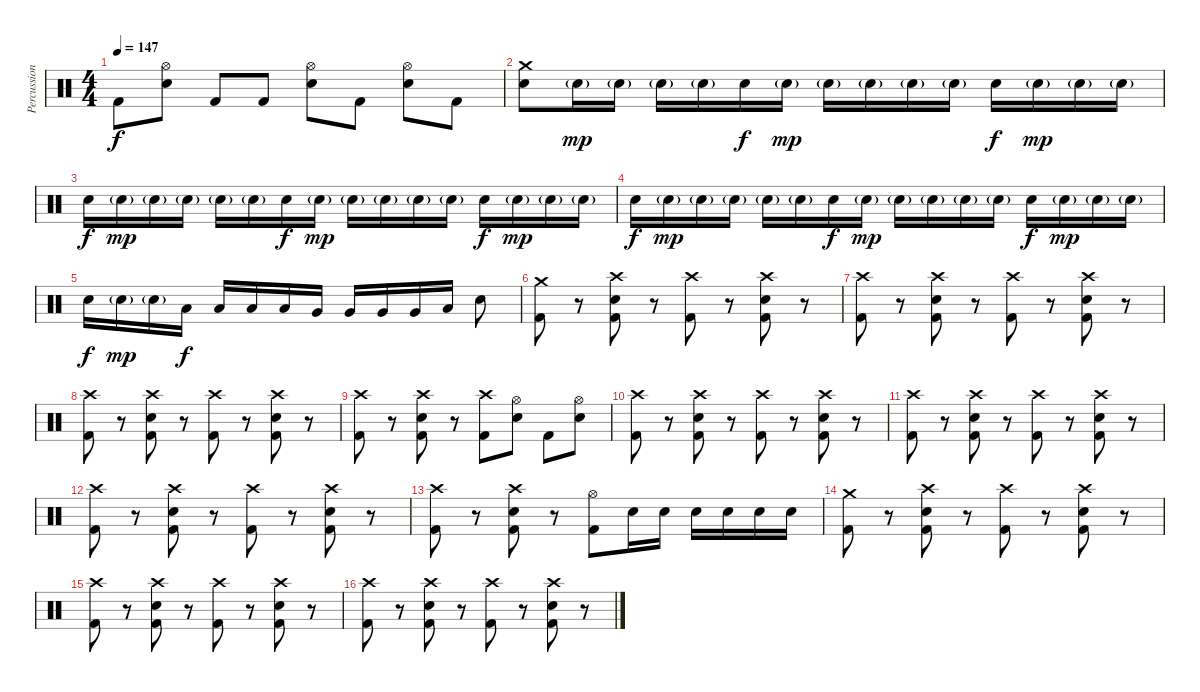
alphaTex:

\track ("Percussion" "Percussion") {instrument percussion}
\staff {score}
\articulation defaults
\ts (4 4)
\tempo 147
\clef neutral
\ks c "Kick (hit) 2".8{dy f}
("Hi-Hat (open)" "Electric Snare (hit)").8 "Kick (hit) 2".8 "Kick (hit) 2".8 ("Electric Snare (hit)" "Hi-Hat (open)").8 "Kick (hit) 2".8 ("Electric Snare (hit)" "Hi-Hat (open)").8 "Kick (hit) 2".8 |
("Crash medium (hit)" "Electric Snare (hit)").8 "Electric Snare (hit)"{g}.16{dy mp} "Electric Snare (hit)"{g}.16 "Electric Snare (hit)"{g}.16 "Electric Snare (hit)"{g}.16 "Electric Snare (hit)".16{dy f} "Electric Snare (hit)"{g}.16{dy mp} "Electric Snare (hit)"{g}.16 "Electric Snare (hit)"{g}.16 "Electric Snare (hit)"{g}.16 "Electric Snare (hit)"{g}.16 "Electric Snare (hit)".16{dy f} "Electric Snare (hit)"{g}.16{dy mp} "Electric Snare (hit)"{g}.16 "Electric Snare (hit)"{g}.16 |
"Electric Snare (hit)".16{dy f} "Electric Snare (hit)"{g}.16{dy mp} "Electric Snare (hit)"{g}.16 "Electric Snare (hit)"{g}.16 "Electric Snare (hit)"{g}.16 "Electric Snare (hit)"{g}.16 "Electric Snare (hit)".16{dy f} "Electric Snare (hit)"{g}.16{dy mp} "Electric Snare (hit)"{g}.16 "Electric Snare (hit)"{g}.16 "Electric Snare (hit)"{g}.16 "Electric Snare (hit)"{g}.16 "Electric Snare (hit)".16{dy f} "Electric Snare (hit)"{g}.16{dy mp} "Electric Snare (hit)"{g}.16 "Electric Snare (hit)"{g}.16 |
"Electric Snare (hit)".16{dy f} "Electric Snare (hit)"{g}.16{dy mp} "Electric Snare (hit)"{g}.16 "Electric Snare (hit)"{g}.16 "Electric Snare (hit)"{g}.16 "Electric Snare (hit)"{g}.16 "Electric Snare (hit)".16{dy f} "Electric Snare (hit)"{g}.16{dy mp} "Electric Snare (hit)"{g}.16 "Electric Snare (hit)"{g}.16 "Electric Snare (hit)"{g}.16 "Electric Snare (hit)"{g}.16 "Electric Snare (hit)".16{dy f} "Electric Snare (hit)"{g}.16{dy mp} "Electric Snare (hit)"{g}.16 "Electric Snare (hit)"{g}.16 |
"Electric Snare (hit)".16{dy f} "Electric Snare (hit)"{g}.16{dy mp} "Electric Snare (hit)"{g}.16 "Low Tom (hit)".16{dy f} "Low Tom (hit)".16 "Low Tom (hit)".16 "Low Tom (hit)".16 "Very Low Tom (hit)".16 "Very Low Tom (hit)".16 "Very Low Tom (hit)".16 "Very Low Tom (hit)".16 "Low Floor Tom (hit)".16 "Electric Snare (hit)".8 |
("Crash medium (hit)" "Kick (hit) 2").8 r.8 ("Crash high (hit)" "Kick (hit) 2" "Electric Snare (hit)").8 r.8 ("Crash high (hit)" "Kick (hit) 2").8 r.8 ("Crash high (hit)" "Kick (hit) 2" "Electric Snare (hit)").8 r.8 |
("Crash high (hit)" "Kick (hit) 2").8 r.8 ("Crash high (hit)" "Kick (hit) 2" "Electric Snare (hit)").8 r.8 ("Crash high (hit)" "Kick (hit) 2").8 r.8 ("Crash high (hit)" "Kick (hit) 2" "Electric Snare (hit)").8 r.8 |
("Crash high (hit)" "Kick (hit) 2").8 r.8 ("Crash high (hit)" "Kick (hit) 2" "Electric Snare (hit)").8 r.8 ("Crash high (hit)" "Kick (hit) 2").8 r.8 ("Crash high (hit)" "Kick (hit) 2" "Electric Snare (hit)").8 r.8 |
("Crash high (hit)" "Kick (hit) 2").8 r.8 ("Crash high (hit)" "Kick (hit) 2" "Electric Snare (hit)").8 r.8 ("Crash high (hit)" "Kick (hit) 2").8 ("Hi-Hat (open)" "Electric Snare (hit)").8 "Kick (hit) 2".8 ("Hi-Hat (open)" "Electric Snare (hit)").8 |
("Crash high (hit)" "Kick (hit) 2").8 r.8 ("Crash high (hit)" "Kick (hit) 2" "Electric Snare (hit)").8 r.8 ("Crash high (hit)" "Kick (hit) 2").8 r.8 ("Crash high (hit)" "Kick (hit) 2" "Electric Snare (hit)").8 r.8 |
("Crash high (hit)" "Kick (hit) 2").8 r.8 ("Crash high (hit)" "Kick (hit) 2" "Electric Snare (hit)").8 r.8 ("Crash high (hit)" "Kick (hit) 2").8 r.8 ("Crash high (hit)" "Kick (hit) 2" "Electric Snare (hit)").8 r.8 |
("Crash high (hit)" "Kick (hit) 2").8 r.8 ("Crash high (hit)" "Kick (hit) 2" "Electric Snare (hit)").8 r.8 ("Crash high (hit)" "Kick (hit) 2").8 r.8 ("Crash high (hit)" "Kick (hit) 2" "Electric Snare (hit)").8 r.8 |
("Crash high (hit)" "Kick (hit) 2").8 r.8 ("Crash high (hit)" "Kick (hit) 2" "Electric Snare (hit)").8 r.8 ("Hi-Hat (open)" "Kick (hit) 2").8 "Electric Snare (hit)".16 "Electric Snare (hit)".16 "Electric Snare (hit)".16 "Electric Snare (hit)".16 "Electric Snare (hit)".16 "Electric Snare (hit)".16 |
("Crash medium (hit)" "Kick (hit) 2").8 r.8 ("Crash high (hit)" "Kick (hit) 2" "Electric Snare (hit)").8 r.8 ("Crash high (hit)" "Kick (hit) 2").8 r.8 ("Crash high (hit)" "Kick (hit) 2" "Electric Snare (hit)").8 r.8 |
("Crash high (hit)" "Kick (hit) 2").8 r.8 ("Crash high (hit)" "Kick (hit) 2" "Electric Snare (hit)").8 r.8 ("Crash high (hit)" "Kick (hit) 2").8 r.8 ("Crash high (hit)" "Kick (hit) 2" "Electric Snare (hit)").8 r.8 |
("Crash high (hit)" "Kick (hit) 2").8 r.8 ("Crash high (hit)" "Kick (hit) 2" "Electric Snare (hit)").8 r.8 ("Crash high (hit)" "Kick (hit) 2").8 r.8 ("Crash high (hit)" "Kick (hit) 2" "Electric Snare (hit)").8 r.8
